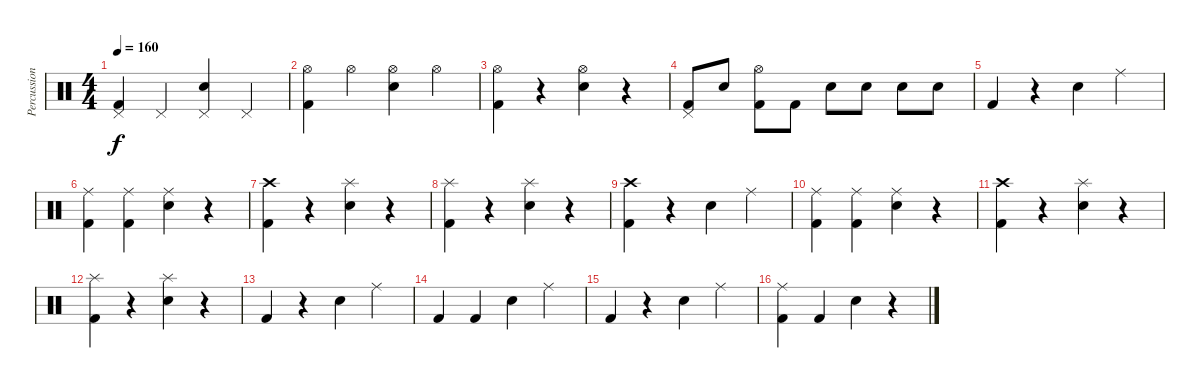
\track ("Percussion" "Percussion") {instrument percussion}
\staff {score}
\articulation defaults
\ts (4 4)
\tempo 160
\clef neutral
\ks c
("Pedal Hi-Hat (hit)" "Kick (hit) 2").4{dy f} "Pedal Hi-Hat (hit)".4 ("Pedal Hi-Hat (hit)" "Snare (hit) 2").4 "Pedal Hi-Hat (hit)".4 |
("Hi-Hat (open)" "Kick (hit) 2").4 "Hi-Hat (open)".4 ("Hi-Hat (open)" "Snare (hit) 2").4 "Hi-Hat (open)".4 |
("Hi-Hat (open)" "Kick (hit) 2").4 r.4 ("Hi-Hat (open)" "Snare (hit) 2").4 r.4 |
("Pedal Hi-Hat (hit)" "Kick (hit) 2").8 "Snare (hit) 2".8 ("Hi-Hat (open)" "Kick (hit) 2").8 "Kick (hit) 2".8 "Snare (hit) 2".8 "Snare (hit) 2".8 "Snare (hit) 2".8 "Snare (hit) 2".8 |
"Kick (hit) 2".4 r.4 "Snare (hit) 2".4 "Ride (middle)".4 |
("Ride (middle)" "Kick (hit) 2").4 ("Ride (middle)" "Kick (hit) 2").4 ("Ride (middle)" "Snare (hit) 2").4 r.4 |
("Crash high (hit)" "Kick (hit) 2").4 r.4 ("Splash (hit)" "Snare (hit) 2").4 r.4 |
("Splash (hit)" "Kick (hit) 2").4 r.4 ("Splash (hit)" "Snare (hit) 2").4 r.4 |
("Crash high (hit)" "Kick (hit) 2").4 r.4 "Snare (hit) 2".4 "Ride (middle)".4 |
("Ride (middle)" "Kick (hit) 2").4 ("Ride (middle)" "Kick (hit) 2").4 ("Ride (middle)" "Snare (hit) 2").4 r.4 |
("Crash high (hit)" "Kick (hit) 2").4 r.4 ("Splash (hit)" "Snare (hit) 2").4 r.4 |
("Splash (hit)" "Kick (hit) 2").4 r.4 ("Splash (hit)" "Snare (hit) 2").4 r.4 |
"Kick (hit) 2".4 r.4 "Snare (hit) 2".4 "Ride (middle)".4 |
"Kick (hit) 2".4 "Kick (hit) 2".4 "Snare (hit) 2".4 "Ride (middle)".4 |
"Kick (hit) 2".4 r.4 "Snare (hit) 2".4 "Ride (middle)".4 |
("Ride (middle)" "Kick (hit) 2").4 "Kick (hit) 2".4 "Snare (hit) 2".4 r.4
